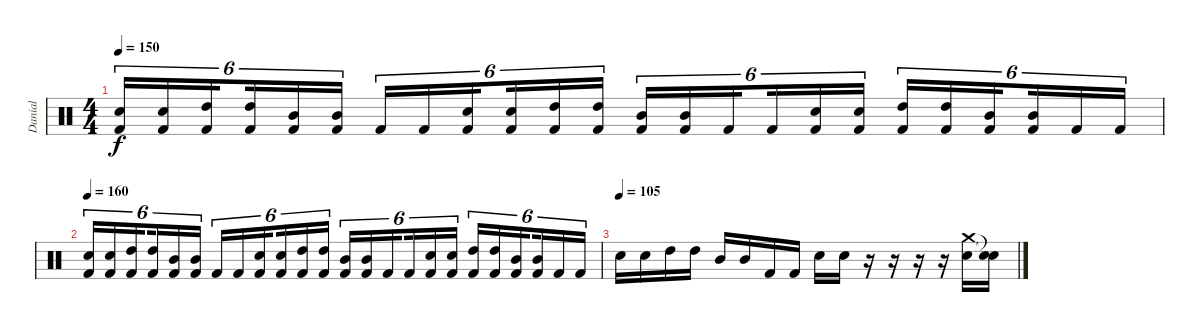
\track ("Danial" "Danial") {instrument percussion}
\staff {score}
\articulation defaults
\ts (4 4)
\tempo 150
\clef neutral
\ks c
("Snare (hit) 2" "Kick (hit) 2").16{tu (6 4) dy f} ("Snare (hit) 2" "Kick (hit) 2").16{tu (6 4)} ("High Tom (hit)" "Kick (hit) 2").16{tu (6 4) beam splitsecondary} ("High Tom (hit)" "Kick (hit) 2").16{tu (6 4)} ("Mid Tom (hit)" "Kick (hit) 2").16{tu (6 4)} ("Mid Tom (hit)" "Kick (hit) 2").16{tu (6 4)} "Kick (hit) 2".16{tu (6 4)} "Kick (hit) 2".16{tu (6 4)} ("Snare (hit) 2" "Kick (hit) 2").16{tu (6 4) beam splitsecondary} ("Snare (hit) 2" "Kick (hit) 2").16{tu (6 4)} ("High Tom (hit)" "Kick (hit) 2").16{tu (6 4)} ("High Tom (hit)" "Kick (hit) 2").16{tu (6 4)} ("Mid Tom (hit)" "Kick (hit) 2").16{tu (6 4)} ("Mid Tom (hit)" "Kick (hit) 2").16{tu (6 4)} "Kick (hit) 2".16{tu (6 4) beam splitsecondary} "Kick (hit) 2".16{tu (6 4)} ("Snare (hit) 2" "Kick (hit) 2").16{tu (6 4)} ("Snare (hit) 2" "Kick (hit) 2").16{tu (6 4)} ("High Tom (hit)" "Kick (hit) 2").16{tu (6 4)} ("High Tom (hit)" "Kick (hit) 2").16{tu (6 4)} ("Mid Tom (hit)" "Kick (hit) 2").16{tu (6 4) beam splitsecondary} ("Mid Tom (hit)" "Kick (hit) 2").16{tu (6 4)} "Kick (hit) 2".16{tu (6 4)} "Kick (hit) 2".16{tu (6 4)} |
\tempo 160
("Snare (hit) 2" "Kick (hit) 2").16{tu (6 4)} ("Snare (hit) 2" "Kick (hit) 2").16{tu (6 4)} ("High Tom (hit)" "Kick (hit) 2").16{tu (6 4) beam splitsecondary} ("High Tom (hit)" "Kick (hit) 2").16{tu (6 4)} ("Mid Tom (hit)" "Kick (hit) 2").16{tu (6 4)} ("Mid Tom (hit)" "Kick (hit) 2").16{tu (6 4)} "Kick (hit) 2".16{tu (6 4)} "Kick (hit) 2".16{tu (6 4)} ("Snare (hit) 2" "Kick (hit) 2").16{tu (6 4) beam splitsecondary} ("Snare (hit) 2" "Kick (hit) 2").16{tu (6 4)} ("High Tom (hit)" "Kick (hit) 2").16{tu (6 4)} ("High Tom (hit)" "Kick (hit) 2").16{tu (6 4)} ("Mid Tom (hit)" "Kick (hit) 2").16{tu (6 4)} ("Mid Tom (hit)" "Kick (hit) 2").16{tu (6 4)} "Kick (hit) 2".16{tu (6 4) beam splitsecondary} "Kick (hit) 2".16{tu (6 4)} ("Snare (hit) 2" "Kick (hit) 2").16{tu (6 4)} ("Snare (hit) 2" "Kick (hit) 2").16{tu (6 4)} ("High Tom (hit)" "Kick (hit) 2").16{tu (6 4)} ("High Tom (hit)" "Kick (hit) 2").16{tu (6 4)} ("Mid Tom (hit)" "Kick (hit) 2").16{tu (6 4) beam splitsecondary} ("Mid Tom (hit)" "Kick (hit) 2").16{tu (6 4)} "Kick (hit) 2".16{tu (6 4)} "Kick (hit) 2".16{tu (6 4)} |
\tempo (105)
"Snare (hit) 2".16 "Snare (hit) 2".16 "High Tom (hit)".16 "High Tom (hit)".16 "Mid Tom (hit)".16 "Mid Tom (hit)".16 "Kick (hit) 2".16 "Kick (hit) 2".16 "Snare (hit) 2".16 "Snare (hit) 2".16 r.16 r.16 r.16 r.16 ("Crash medium (hit)" "Snare (hit) 2").16 ("Snare (hit)"{t} "Snare (hit)"{t}).16
